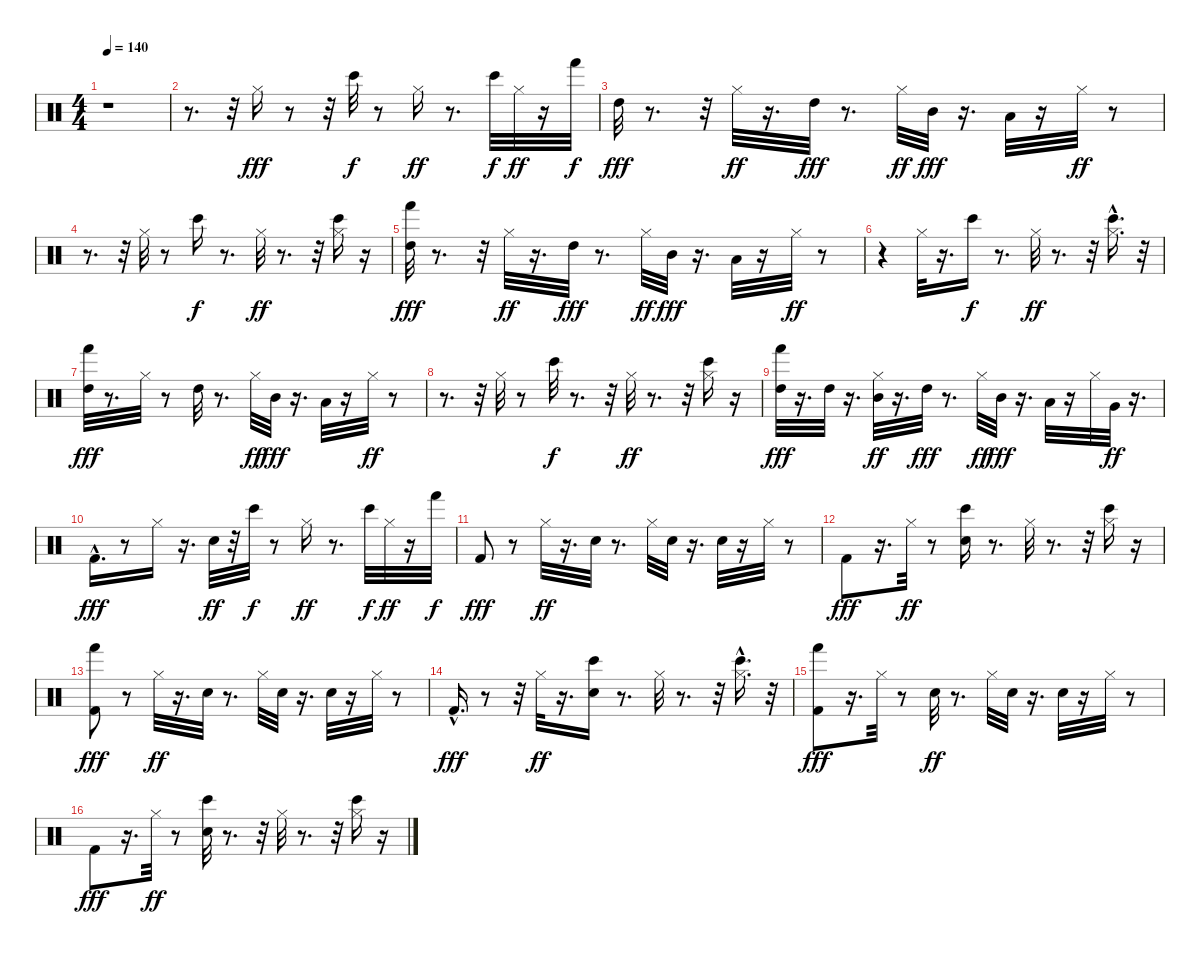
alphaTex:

\track "" {instrument percussion}
\staff {score}
\articulation defaults
\ts (4 4)
\tempo 140
\clef neutral
\ks c
r.1{dy fff} |
r.8{d} r.32 "Hi-Hat (closed)".16 r.8 r.32 "Bongo High (hit)".32{dy f} r.8 "Hi-Hat (closed)".16{dy ff} r.8{d} "Bongo High (hit)".32{dy f} "Hi-Hat (closed)".32{dy ff} r.16 "Hand (hit)".32{dy f} |
"High Tom (hit)".32{dy fff} r.8{d} r.32 "Hi-Hat (closed)".32{dy ff} r.16{d} "High Tom (hit)".32{dy fff} r.8{d} "Hi-Hat (closed)".32{dy ff} "Mid Tom (hit)".32{dy fff} r.16{d} "Low Tom (hit)".32 r.16 "Hi-Hat (closed)".32{dy ff} r.8 |
r.8{d} r.32 "Hi-Hat (closed)".32 r.8 "Bongo High (hit)".16{dy f} r.8{d} "Hi-Hat (closed)".32{dy ff} r.8{d} r.32 ("Bongo High (hit)" "Hi-Hat (closed)").16 r.16 |
("High Tom (hit)" "Hand (hit)").32{dy fff} r.8{d} r.32 "Hi-Hat (closed)".32{dy ff} r.16{d} "High Tom (hit)".32{dy fff} r.8{d} "Hi-Hat (closed)".32{dy ff} "Mid Tom (hit)".32{dy fff} r.16{d} "Low Tom (hit)".32 r.16 "Hi-Hat (closed)".32{dy ff} r.8 |
r.4 "Hi-Hat (closed)".32 r.16{d} "Bongo High (hit)".16{dy f} r.8{d} "Hi-Hat (closed)".32{dy ff} r.8{d} r.32 ("Bongo High (hit)"{hac} "Hi-Hat (closed)").16{d} r.32 |
("High Tom (hit)" "Hand (hit)").32{dy fff} r.8{d} "Hi-Hat (closed)".32 r.8 "High Tom (hit)".32 r.8{d} "Hi-Hat (closed)".32{dy ff} "Mid Tom (hit)".32{dy fff} r.16{d} "Low Tom (hit)".32 r.16 "Hi-Hat (closed)".32{dy ff} r.8 |
r.8{d} r.32 "Hi-Hat (closed)".32 r.8 "Bongo High (hit)".32{dy f} r.8{d} r.32 "Hi-Hat (closed)".32{dy ff} r.8{d} r.32 ("Bongo High (hit)" "Hi-Hat (closed)").16 r.16 |
("High Tom (hit)" "Hand (hit)").32{dy fff} r.16{d} "High Tom (hit)".32 r.16{d} ("Mid Tom (hit)" "Hi-Hat (closed)").32{dy ff} r.16{d} "High Tom (hit)".32{dy fff} r.8{d} "Hi-Hat (closed)".32{dy ff} "Mid Tom (hit)".32{dy fff} r.16{d} "Low Tom (hit)".32 r.16 "Hi-Hat (closed)".32 "Very Low Tom (hit)".32{dy ff} r.16{d} |
"Kick (hit) 2"{hac}.16{d dy fff} r.8 "Hi-Hat (closed)".16 r.16{d} "Electric Snare (hit)".32{dy ff} r.32 "Bongo High (hit)".32{dy f} r.8 "Hi-Hat (closed)".16{dy ff} r.8{d} "Bongo High (hit)".32{dy f} "Hi-Hat (closed)".32{dy ff} r.16 "Hand (hit)".32{dy f} |
"Kick (hit) 2".8{dy fff} r.8 "Hi-Hat (closed)".32{dy ff} r.16{d} "Electric Snare (hit)".32 r.8{d} "Hi-Hat (closed)".32 "Electric Snare (hit)".32 r.16{d} "Electric Snare (hit)".32 r.16 "Hi-Hat (closed)".32 r.8 |
"Kick (hit) 2".8{dy fff} r.16{d} "Hi-Hat (closed)".32{dy ff} r.8 ("Bongo High (hit)" "Electric Snare (hit)").16 r.8{d} "Hi-Hat (closed)".32 r.8{d} r.32 ("Bongo High (hit)" "Hi-Hat (closed)").16 r.16 |
("Hand (hit)" "Kick (hit) 2").8{dy fff} r.8 "Hi-Hat (closed)".32{dy ff} r.16{d} "Electric Snare (hit)".32 r.8{d} "Hi-Hat (closed)".32 "Electric Snare (hit)".32 r.16{d} "Electric Snare (hit)".32 r.16 "Hi-Hat (closed)".32 r.8 |
"Kick (hit) 2"{hac}.16{d dy fff} r.8 r.32 "Hi-Hat (closed)".32{dy ff} r.16{d} ("Bongo High (hit)" "Electric Snare (hit)").16 r.8{d} "Hi-Hat (closed)".32 r.8{d} r.32 ("Bongo High (hit)"{hac} "Hi-Hat (closed)").16{d} r.32 |
("Kick (hit) 2" "Hand (hit)").8{dy fff} r.16{d} "Hi-Hat (closed)".32 r.8 "Electric Snare (hit)".32{dy ff} r.8{d} "Hi-Hat (closed)".32 "Electric Snare (hit)".32 r.16{d} "Electric Snare (hit)".32 r.16 "Hi-Hat (closed)".32 r.8 |
"Kick (hit) 2".8{dy fff} r.16{d} "Hi-Hat (closed)".32{dy ff} r.8 ("Bongo High (hit)" "Electric Snare (hit)").32 r.8{d} r.32 "Hi-Hat (closed)".32 r.8{d} r.32 ("Bongo High (hit)" "Hi-Hat (closed)").16 r.16
